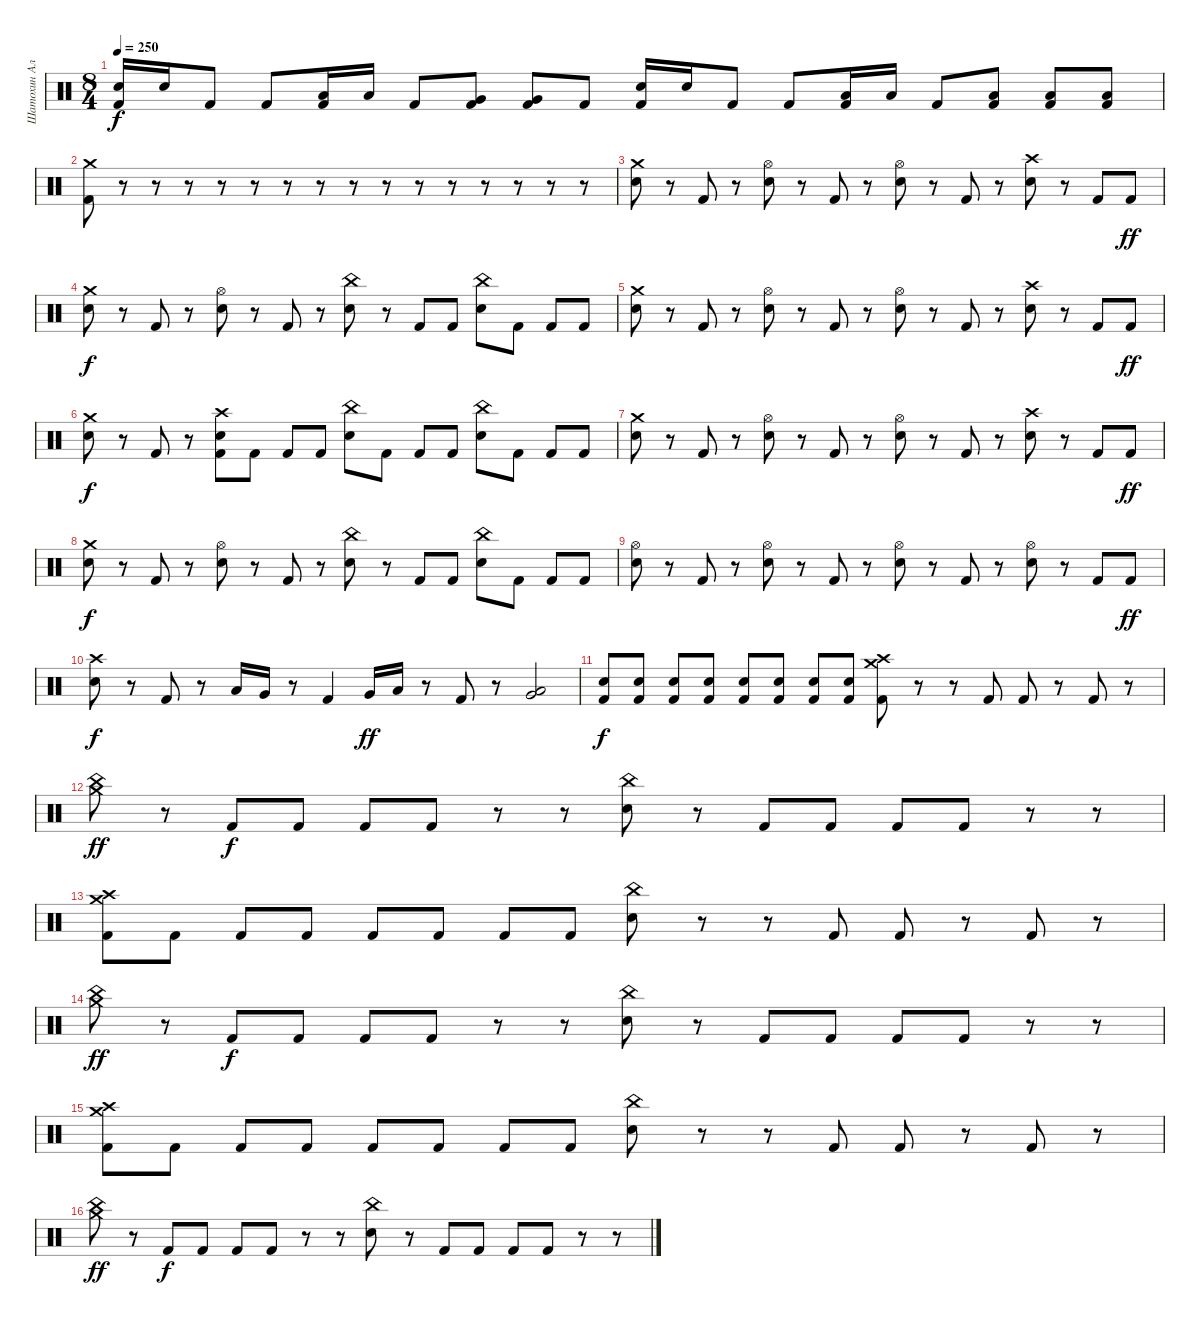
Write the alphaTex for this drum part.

\track ("Шатохин Алексей" "Шатохин Ал") {instrument percussion}
\staff {score}
\articulation defaults
\ts (8 4)
\tempo 250
\clef neutral
\ks c
("Kick (hit) 2" "Electric Snare (hit)").16{dy f} "Electric Snare (hit)".16 "Kick (hit) 2".8 "Kick (hit) 2".8 ("Kick (hit) 2" "Low Tom (hit)").16 "Low Tom (hit)".16 "Kick (hit) 2".8 ("Kick (hit) 2" "Very Low Tom (hit)").8 ("Kick (hit) 2" "Very Low Tom (hit)").8 "Kick (hit) 2".8 ("Kick (hit) 2" "Electric Snare (hit)").16 "Electric Snare (hit)".16 "Kick (hit) 2".8 "Kick (hit) 2".8 ("Kick (hit) 2" "Low Tom (hit)").16 "Low Tom (hit)".16 "Kick (hit) 2".8 ("Kick (hit) 2" "Low Floor Tom (hit)").8 ("Kick (hit) 2" "Low Floor Tom (hit)").8 ("Kick (hit) 2" "Low Floor Tom (hit)").8 |
("Kick (hit) 2" "Crash medium (hit)").8 r.8 r.8 r.8 r.8 r.8 r.8 r.8 r.8 r.8 r.8 r.8 r.8 r.8 r.8 r.8 |
("Electric Snare (hit)" "Crash medium (hit)").8 r.8 "Kick (hit) 2".8 r.8 ("Electric Snare (hit)" "Hi-Hat (open)").8 r.8 "Kick (hit) 2".8 r.8 ("Electric Snare (hit)" "Hi-Hat (open)").8 r.8 "Kick (hit) 2".8 r.8 ("Electric Snare (hit)" "Crash high (hit)").8 r.8 "Kick (hit) 2".8 "Kick (hit) 2".8{dy ff} |
("Electric Snare (hit)" "Crash medium (hit)").8{dy f} r.8 "Kick (hit) 2".8 r.8 ("Electric Snare (hit)" "Hi-Hat (open)").8 r.8 "Kick (hit) 2".8 r.8 ("Electric Snare (hit)" "China (hit)").8 r.8 "Kick (hit) 2".8 "Kick (hit) 2".8 ("Electric Snare (hit)" "China (hit)").8 "Kick (hit) 2".8 "Kick (hit) 2".8 "Kick (hit) 2".8 |
("Electric Snare (hit)" "Crash medium (hit)").8 r.8 "Kick (hit) 2".8 r.8 ("Electric Snare (hit)" "Hi-Hat (open)").8 r.8 "Kick (hit) 2".8 r.8 ("Electric Snare (hit)" "Hi-Hat (open)").8 r.8 "Kick (hit) 2".8 r.8 ("Electric Snare (hit)" "Crash high (hit)").8 r.8 "Kick (hit) 2".8 "Kick (hit) 2".8{dy ff} |
("Electric Snare (hit)" "Crash medium (hit)").8{dy f} r.8 "Kick (hit) 2".8 r.8 ("Kick (hit) 2" "Electric Snare (hit)" "Crash high (hit)").8 "Kick (hit) 2".8 "Kick (hit) 2".8 "Kick (hit) 2".8 ("Electric Snare (hit)" "China (hit)").8 "Kick (hit) 2".8 "Kick (hit) 2".8 "Kick (hit) 2".8 ("Electric Snare (hit)" "China (hit)").8 "Kick (hit) 2".8 "Kick (hit) 2".8 "Kick (hit) 2".8 |
("Electric Snare (hit)" "Crash medium (hit)").8 r.8 "Kick (hit) 2".8 r.8 ("Electric Snare (hit)" "Hi-Hat (open)").8 r.8 "Kick (hit) 2".8 r.8 ("Electric Snare (hit)" "Hi-Hat (open)").8 r.8 "Kick (hit) 2".8 r.8 ("Electric Snare (hit)" "Crash high (hit)").8 r.8 "Kick (hit) 2".8 "Kick (hit) 2".8{dy ff} |
("Electric Snare (hit)" "Crash medium (hit)").8{dy f} r.8 "Kick (hit) 2".8 r.8 ("Electric Snare (hit)" "Hi-Hat (open)").8 r.8 "Kick (hit) 2".8 r.8 ("Electric Snare (hit)" "China (hit)").8 r.8 "Kick (hit) 2".8 "Kick (hit) 2".8 ("Electric Snare (hit)" "China (hit)").8 "Kick (hit) 2".8 "Kick (hit) 2".8 "Kick (hit) 2".8 |
("Electric Snare (hit)" "Hi-Hat (open)").8 r.8 "Kick (hit) 2".8 r.8 ("Electric Snare (hit)" "Hi-Hat (open)").8 r.8 "Kick (hit) 2".8 r.8 ("Electric Snare (hit)" "Hi-Hat (open)").8 r.8 "Kick (hit) 2".8 r.8 ("Electric Snare (hit)" "Hi-Hat (open)").8 r.8 "Kick (hit) 2".8 "Kick (hit) 2".8{dy ff} |
("Electric Snare (hit)" "Crash high (hit)").8{dy f} r.8 "Kick (hit) 2".8 r.8 "Low Tom (hit)".16 "Very Low Tom (hit)".16 r.8 "Kick (hit) 2".4 "Very Low Tom (hit)".16{dy ff} "Low Floor Tom (hit)".16 r.8 "Kick (hit) 2".8 r.8 ("Very Low Tom (hit)" "Low Floor Tom (hit)").2 |
("Kick (hit) 2" "Electric Snare (hit)").8{dy f} ("Kick (hit) 2" "Electric Snare (hit)").8 ("Kick (hit) 2" "Electric Snare (hit)").8 ("Kick (hit) 2" "Electric Snare (hit)").8 ("Kick (hit) 2" "Electric Snare (hit)").8 ("Kick (hit) 2" "Electric Snare (hit)").8 ("Kick (hit) 2" "Electric Snare (hit)").8 ("Kick (hit) 2" "Electric Snare (hit)").8 ("Kick (hit) 2" "Crash medium (hit)" "Crash high (hit)").8 r.8 r.8 "Kick (hit) 2".8 "Kick (hit) 2".8 r.8 "Kick (hit) 2".8 r.8 |
("Crash medium (hit)" "China (hit)").8{dy ff} r.8 "Kick (hit) 2".8{dy f} "Kick (hit) 2".8 "Kick (hit) 2".8 "Kick (hit) 2".8 r.8 r.8 ("Electric Snare (hit)" "China (hit)").8 r.8 "Kick (hit) 2".8 "Kick (hit) 2".8 "Kick (hit) 2".8 "Kick (hit) 2".8 r.8 r.8 |
("Kick (hit) 2" "Crash medium (hit)" "Crash high (hit)").8 "Kick (hit) 2".8 "Kick (hit) 2".8 "Kick (hit) 2".8 "Kick (hit) 2".8 "Kick (hit) 2".8 "Kick (hit) 2".8 "Kick (hit) 2".8 ("Electric Snare (hit)" "China (hit)").8 r.8 r.8 "Kick (hit) 2".8 "Kick (hit) 2".8 r.8 "Kick (hit) 2".8 r.8 |
("Crash medium (hit)" "China (hit)").8{dy ff} r.8 "Kick (hit) 2".8{dy f} "Kick (hit) 2".8 "Kick (hit) 2".8 "Kick (hit) 2".8 r.8 r.8 ("Electric Snare (hit)" "China (hit)").8 r.8 "Kick (hit) 2".8 "Kick (hit) 2".8 "Kick (hit) 2".8 "Kick (hit) 2".8 r.8 r.8 |
("Kick (hit) 2" "Crash medium (hit)" "Crash high (hit)").8 "Kick (hit) 2".8 "Kick (hit) 2".8 "Kick (hit) 2".8 "Kick (hit) 2".8 "Kick (hit) 2".8 "Kick (hit) 2".8 "Kick (hit) 2".8 ("Electric Snare (hit)" "China (hit)").8 r.8 r.8 "Kick (hit) 2".8 "Kick (hit) 2".8 r.8 "Kick (hit) 2".8 r.8 |
("Crash medium (hit)" "China (hit)").8{dy ff} r.8 "Kick (hit) 2".8{dy f} "Kick (hit) 2".8 "Kick (hit) 2".8 "Kick (hit) 2".8 r.8 r.8 ("Electric Snare (hit)" "China (hit)").8 r.8 "Kick (hit) 2".8 "Kick (hit) 2".8 "Kick (hit) 2".8 "Kick (hit) 2".8 r.8 r.8
